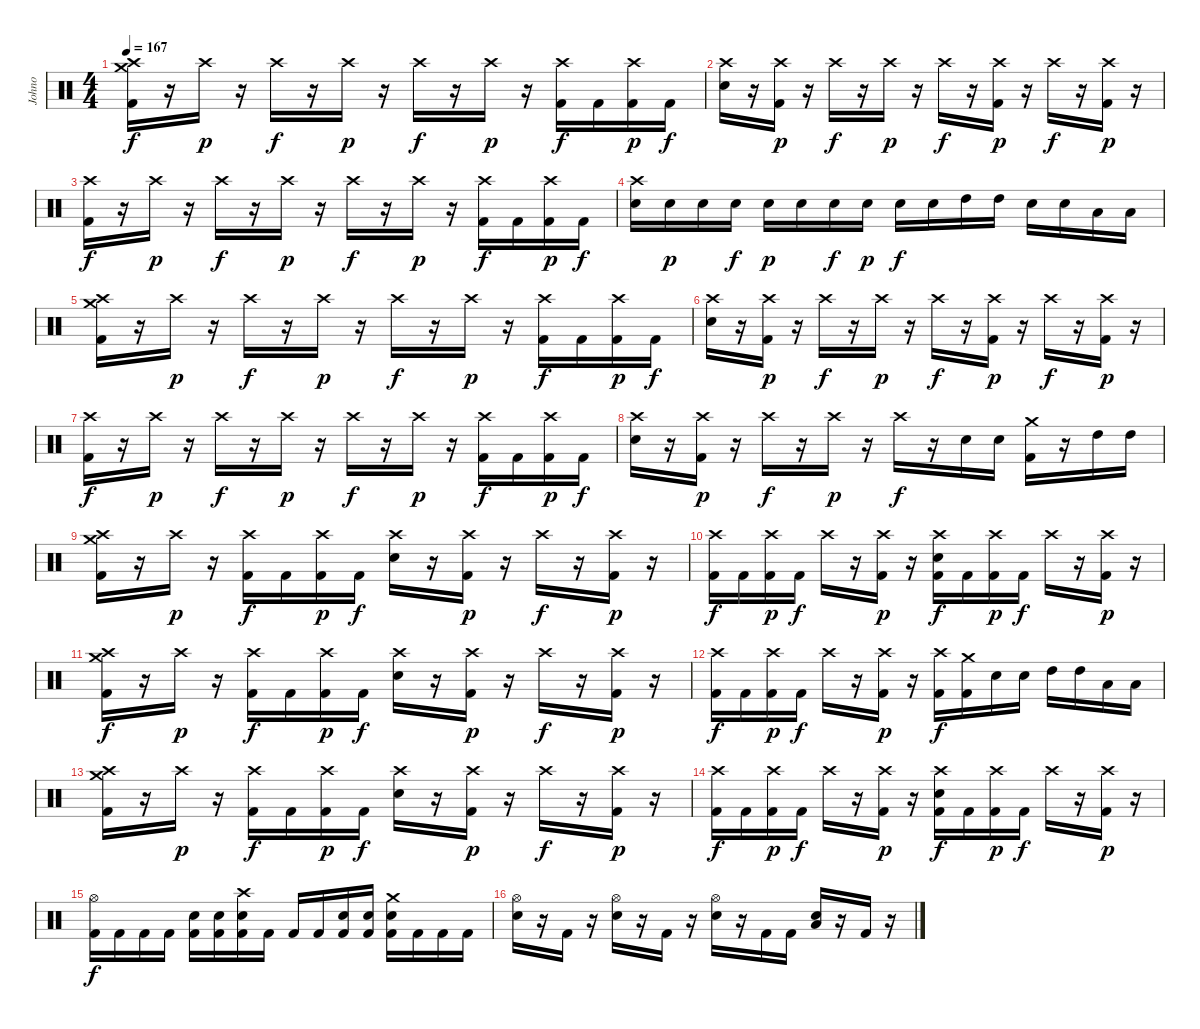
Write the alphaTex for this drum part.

\track ("Johno" "Johno") {instrument percussion}
\staff {score}
\articulation defaults
\ts (4 4)
\tempo 167
\clef neutral
\ks c
("Crash medium (hit)" "Crash high (hit)" "Kick (hit) 2").16{dy f} r.16 "Crash high (hit)".16{dy p} r.16 "Crash high (hit)".16{dy f} r.16 "Crash high (hit)".16{dy p} r.16 "Crash high (hit)".16{dy f} r.16 "Crash high (hit)".16{dy p} r.16 ("Crash high (hit)" "Kick (hit) 2").16{dy f} "Kick (hit) 2".16 ("Crash high (hit)" "Kick (hit) 2").16{dy p} "Kick (hit) 2".16{dy f} |
("Crash high (hit)" "Electric Snare (hit)").16 r.16 ("Crash high (hit)" "Kick (hit) 2").16{dy p} r.16 "Crash high (hit)".16{dy f} r.16 "Crash high (hit)".16{dy p} r.16 "Crash high (hit)".16{dy f} r.16 ("Crash high (hit)" "Kick (hit) 2").16{dy p} r.16 "Crash high (hit)".16{dy f} r.16 ("Crash high (hit)" "Kick (hit) 2").16{dy p} r.16 |
("Crash high (hit)" "Kick (hit) 2").16{dy f} r.16 "Crash high (hit)".16{dy p} r.16 "Crash high (hit)".16{dy f} r.16 "Crash high (hit)".16{dy p} r.16 "Crash high (hit)".16{dy f} r.16 "Crash high (hit)".16{dy p} r.16 ("Crash high (hit)" "Kick (hit) 2").16{dy f} "Kick (hit) 2".16 ("Crash high (hit)" "Kick (hit) 2").16{dy p} "Kick (hit) 2".16{dy f} |
("Crash high (hit)" "Electric Snare (hit)").16 "Electric Snare (hit)".16{dy p} "Electric Snare (hit)".16 "Electric Snare (hit)".16{dy f} "Electric Snare (hit)".16{dy p} "Electric Snare (hit)".16 "Electric Snare (hit)".16{dy f} "Electric Snare (hit)".16{dy p} "Electric Snare (hit)".16{dy f} "Electric Snare (hit)".16 "High Tom (hit)".16 "High Tom (hit)".16 "Electric Snare (hit)".16 "Electric Snare (hit)".16 "Low Floor Tom (hit)".16 "Low Floor Tom (hit)".16 |
("Crash medium (hit)" "Crash high (hit)" "Kick (hit) 2").16 r.16 "Crash high (hit)".16{dy p} r.16 "Crash high (hit)".16{dy f} r.16 "Crash high (hit)".16{dy p} r.16 "Crash high (hit)".16{dy f} r.16 "Crash high (hit)".16{dy p} r.16 ("Crash high (hit)" "Kick (hit) 2").16{dy f} "Kick (hit) 2".16 ("Crash high (hit)" "Kick (hit) 2").16{dy p} "Kick (hit) 2".16{dy f} |
("Crash high (hit)" "Electric Snare (hit)").16 r.16 ("Crash high (hit)" "Kick (hit) 2").16{dy p} r.16 "Crash high (hit)".16{dy f} r.16 "Crash high (hit)".16{dy p} r.16 "Crash high (hit)".16{dy f} r.16 ("Crash high (hit)" "Kick (hit) 2").16{dy p} r.16 "Crash high (hit)".16{dy f} r.16 ("Crash high (hit)" "Kick (hit) 2").16{dy p} r.16 |
("Crash high (hit)" "Kick (hit) 2").16{dy f} r.16 "Crash high (hit)".16{dy p} r.16 "Crash high (hit)".16{dy f} r.16 "Crash high (hit)".16{dy p} r.16 "Crash high (hit)".16{dy f} r.16 "Crash high (hit)".16{dy p} r.16 ("Crash high (hit)" "Kick (hit) 2").16{dy f} "Kick (hit) 2".16 ("Crash high (hit)" "Kick (hit) 2").16{dy p} "Kick (hit) 2".16{dy f} |
("Crash high (hit)" "Electric Snare (hit)").16 r.16 ("Crash high (hit)" "Kick (hit) 2").16{dy p} r.16 "Crash high (hit)".16{dy f} r.16 "Crash high (hit)".16{dy p} r.16 "Crash high (hit)".16{dy f} r.16 "Electric Snare (hit)".16 "Electric Snare (hit)".16 ("Crash medium (hit)" "Kick (hit) 2").16 r.16 "High Tom (hit)".16 "High Tom (hit)".16 |
("Crash medium (hit)" "Crash high (hit)" "Kick (hit) 2").16 r.16 "Crash high (hit)".16{dy p} r.16 ("Crash high (hit)" "Kick (hit) 2").16{dy f} "Kick (hit) 2".16 ("Crash high (hit)" "Kick (hit) 2").16{dy p} "Kick (hit) 2".16{dy f} ("Crash high (hit)" "Electric Snare (hit)").16 r.16 ("Crash high (hit)" "Kick (hit) 2").16{dy p} r.16 "Crash high (hit)".16{dy f} r.16 ("Crash high (hit)" "Kick (hit) 2").16{dy p} r.16 |
("Crash high (hit)" "Kick (hit) 2").16{dy f} "Kick (hit) 2".16 ("Crash high (hit)" "Kick (hit) 2").16{dy p} "Kick (hit) 2".16{dy f} "Crash high (hit)".16 r.16 ("Crash high (hit)" "Kick (hit) 2").16{dy p} r.16 ("Crash high (hit)" "Electric Snare (hit)" "Kick (hit) 2").16{dy f} "Kick (hit) 2".16 ("Crash high (hit)" "Kick (hit) 2").16{dy p} "Kick (hit) 2".16{dy f} "Crash high (hit)".16 r.16 ("Crash high (hit)" "Kick (hit) 2").16{dy p} r.16 |
("Crash medium (hit)" "Crash high (hit)" "Kick (hit) 2").16{dy f} r.16 "Crash high (hit)".16{dy p} r.16 ("Crash high (hit)" "Kick (hit) 2").16{dy f} "Kick (hit) 2".16 ("Crash high (hit)" "Kick (hit) 2").16{dy p} "Kick (hit) 2".16{dy f} ("Crash high (hit)" "Electric Snare (hit)").16 r.16 ("Crash high (hit)" "Kick (hit) 2").16{dy p} r.16 "Crash high (hit)".16{dy f} r.16 ("Crash high (hit)" "Kick (hit) 2").16{dy p} r.16 |
("Crash high (hit)" "Kick (hit) 2").16{dy f} "Kick (hit) 2".16 ("Crash high (hit)" "Kick (hit) 2").16{dy p} "Kick (hit) 2".16{dy f} "Crash high (hit)".16 r.16 ("Crash high (hit)" "Kick (hit) 2").16{dy p} r.16 ("Crash high (hit)" "Kick (hit) 2").16{dy f} ("Crash medium (hit)" "Kick (hit) 2").16 "Electric Snare (hit)".16 "Electric Snare (hit)".16 "High Tom (hit)".16 "High Tom (hit)".16 "Low Floor Tom (hit)".16 "Low Floor Tom (hit)".16 |
("Crash medium (hit)" "Crash high (hit)" "Kick (hit) 2").16 r.16 "Crash high (hit)".16{dy p} r.16 ("Crash high (hit)" "Kick (hit) 2").16{dy f} "Kick (hit) 2".16 ("Crash high (hit)" "Kick (hit) 2").16{dy p} "Kick (hit) 2".16{dy f} ("Crash high (hit)" "Electric Snare (hit)").16 r.16 ("Crash high (hit)" "Kick (hit) 2").16{dy p} r.16 "Crash high (hit)".16{dy f} r.16 ("Crash high (hit)" "Kick (hit) 2").16{dy p} r.16 |
("Crash high (hit)" "Kick (hit) 2").16{dy f} "Kick (hit) 2".16 ("Crash high (hit)" "Kick (hit) 2").16{dy p} "Kick (hit) 2".16{dy f} "Crash high (hit)".16 r.16 ("Crash high (hit)" "Kick (hit) 2").16{dy p} r.16 ("Crash high (hit)" "Electric Snare (hit)" "Kick (hit) 2").16{dy f} "Kick (hit) 2".16 ("Crash high (hit)" "Kick (hit) 2").16{dy p} "Kick (hit) 2".16{dy f} "Crash high (hit)".16 r.16 ("Crash high (hit)" "Kick (hit) 2").16{dy p} r.16 |
("Hi-Hat (open)" "Kick (hit) 2").16{dy f} "Kick (hit) 2".16 "Kick (hit) 2".16 "Kick (hit) 2".16 ("Electric Snare (hit)" "Kick (hit) 2").16 ("Electric Snare (hit)" "Kick (hit) 2").16 ("Crash high (hit)" "Electric Snare (hit)" "Kick (hit) 2").16 "Kick (hit) 2".16 "Kick (hit) 2".16 "Kick (hit) 2".16 ("Electric Snare (hit)" "Kick (hit) 2").16 ("Electric Snare (hit)" "Kick (hit) 2").16 ("Crash medium (hit)" "Electric Snare (hit)" "Kick (hit) 2").16 "Kick (hit) 2".16 "Kick (hit) 2".16 "Kick (hit) 2".16 |
("Hi-Hat (open)" "Electric Snare (hit)").16 r.16 "Kick (hit) 2".16 r.16 ("Hi-Hat (open)" "Electric Snare (hit)").16 r.16 "Kick (hit) 2".16 r.16 ("Hi-Hat (open)" "Electric Snare (hit)").16 r.16 "Kick (hit) 2".16 "Kick (hit) 2".16 ("Low Floor Tom (hit)" "Electric Snare (hit)").16 r.16 "Kick (hit) 2".16 r.16
